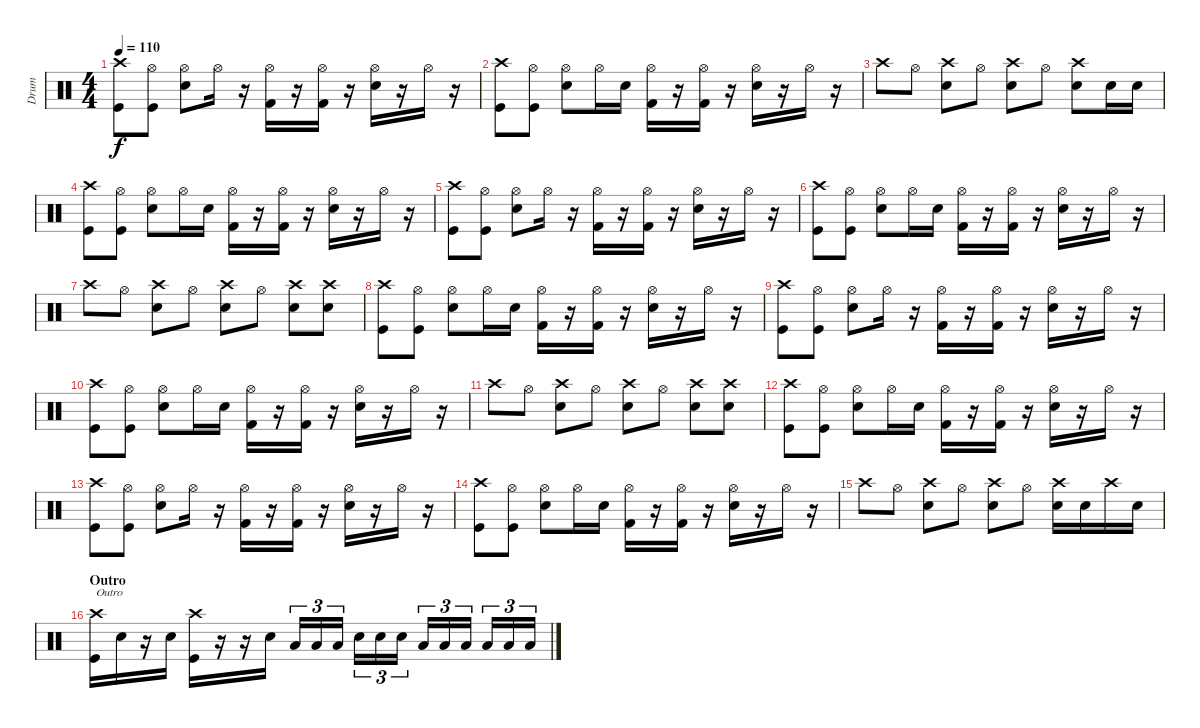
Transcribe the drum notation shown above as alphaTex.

\track ("Drum" "Drum") {instrument percussion}
\staff {score}
\articulation defaults
\ts (4 4)
\tempo 110
\clef neutral
\ks c
("Crash high (hit)" "Kick (hit)").8{dy f} ("Hi-Hat (open)" "Kick (hit)").8 ("Hi-Hat (open)" "Electric Snare (hit)").8 "Hi-Hat (open)".16 r.16 ("Hi-Hat (open)" "Kick (hit) 2").16 r.16 ("Hi-Hat (open)" "Kick (hit) 2").16 r.16 ("Hi-Hat (open)" "Electric Snare (hit)").16 r.16 "Hi-Hat (open)".16 r.16 |
("Crash high (hit)" "Kick (hit)").8 ("Hi-Hat (open)" "Kick (hit)").8 ("Hi-Hat (open)" "Electric Snare (hit)").8 "Hi-Hat (open)".16 "Electric Snare (hit)".16 ("Hi-Hat (open)" "Kick (hit) 2").16 r.16 ("Hi-Hat (open)" "Kick (hit) 2").16 r.16 ("Hi-Hat (open)" "Electric Snare (hit)").16 r.16 "Hi-Hat (open)".16 r.16 |
"Crash high (hit)".8 "Hi-Hat (open)".8 ("Crash high (hit)" "Electric Snare (hit)").8 "Hi-Hat (open)".8 ("Crash high (hit)" "Electric Snare (hit)").8 "Hi-Hat (open)".8 ("Crash high (hit)" "Electric Snare (hit)").8 "Electric Snare (hit)".16 "Electric Snare (hit)".16 |
("Crash high (hit)" "Kick (hit)").8 ("Hi-Hat (open)" "Kick (hit)").8 ("Hi-Hat (open)" "Electric Snare (hit)").8 "Hi-Hat (open)".16 "Electric Snare (hit)".16 ("Hi-Hat (open)" "Kick (hit) 2").16 r.16 ("Hi-Hat (open)" "Kick (hit) 2").16 r.16 ("Hi-Hat (open)" "Electric Snare (hit)").16 r.16 "Hi-Hat (open)".16 r.16 |
("Crash high (hit)" "Kick (hit)").8 ("Hi-Hat (open)" "Kick (hit)").8 ("Hi-Hat (open)" "Electric Snare (hit)").8 "Hi-Hat (open)".16 r.16 ("Hi-Hat (open)" "Kick (hit) 2").16 r.16 ("Hi-Hat (open)" "Kick (hit) 2").16 r.16 ("Hi-Hat (open)" "Electric Snare (hit)").16 r.16 "Hi-Hat (open)".16 r.16 |
("Crash high (hit)" "Kick (hit)").8 ("Hi-Hat (open)" "Kick (hit)").8 ("Hi-Hat (open)" "Electric Snare (hit)").8 "Hi-Hat (open)".16 "Electric Snare (hit)".16 ("Hi-Hat (open)" "Kick (hit) 2").16 r.16 ("Hi-Hat (open)" "Kick (hit) 2").16 r.16 ("Hi-Hat (open)" "Electric Snare (hit)").16 r.16 "Hi-Hat (open)".16 r.16 |
"Crash high (hit)".8 "Hi-Hat (open)".8 ("Crash high (hit)" "Electric Snare (hit)").8 "Hi-Hat (open)".8 ("Crash high (hit)" "Electric Snare (hit)").8 "Hi-Hat (open)".8 ("Crash high (hit)" "Electric Snare (hit)").8 ("Crash high (hit)" "Electric Snare (hit)").8 |
("Crash high (hit)" "Kick (hit)").8 ("Hi-Hat (open)" "Kick (hit)").8 ("Hi-Hat (open)" "Electric Snare (hit)").8 "Hi-Hat (open)".16 "Electric Snare (hit)".16 ("Hi-Hat (open)" "Kick (hit) 2").16 r.16 ("Hi-Hat (open)" "Kick (hit) 2").16 r.16 ("Hi-Hat (open)" "Electric Snare (hit)").16 r.16 "Hi-Hat (open)".16 r.16 |
("Crash high (hit)" "Kick (hit)").8 ("Hi-Hat (open)" "Kick (hit)").8 ("Hi-Hat (open)" "Electric Snare (hit)").8 "Hi-Hat (open)".16 r.16 ("Hi-Hat (open)" "Kick (hit) 2").16 r.16 ("Hi-Hat (open)" "Kick (hit) 2").16 r.16 ("Hi-Hat (open)" "Electric Snare (hit)").16 r.16 "Hi-Hat (open)".16 r.16 |
("Crash high (hit)" "Kick (hit)").8 ("Hi-Hat (open)" "Kick (hit)").8 ("Hi-Hat (open)" "Electric Snare (hit)").8 "Hi-Hat (open)".16 "Electric Snare (hit)".16 ("Hi-Hat (open)" "Kick (hit) 2").16 r.16 ("Hi-Hat (open)" "Kick (hit) 2").16 r.16 ("Hi-Hat (open)" "Electric Snare (hit)").16 r.16 "Hi-Hat (open)".16 r.16 |
"Crash high (hit)".8 "Hi-Hat (open)".8 ("Crash high (hit)" "Electric Snare (hit)").8 "Hi-Hat (open)".8 ("Crash high (hit)" "Electric Snare (hit)").8 "Hi-Hat (open)".8 ("Crash high (hit)" "Electric Snare (hit)").8 ("Crash high (hit)" "Electric Snare (hit)").8 |
("Crash high (hit)" "Kick (hit)").8 ("Hi-Hat (open)" "Kick (hit)").8 ("Hi-Hat (open)" "Electric Snare (hit)").8 "Hi-Hat (open)".16 "Electric Snare (hit)".16 ("Hi-Hat (open)" "Kick (hit) 2").16 r.16 ("Hi-Hat (open)" "Kick (hit) 2").16 r.16 ("Hi-Hat (open)" "Electric Snare (hit)").16 r.16 "Hi-Hat (open)".16 r.16 |
("Crash high (hit)" "Kick (hit)").8 ("Hi-Hat (open)" "Kick (hit)").8 ("Hi-Hat (open)" "Electric Snare (hit)").8 "Hi-Hat (open)".16 r.16 ("Hi-Hat (open)" "Kick (hit) 2").16 r.16 ("Hi-Hat (open)" "Kick (hit) 2").16 r.16 ("Hi-Hat (open)" "Electric Snare (hit)").16 r.16 "Hi-Hat (open)".16 r.16 |
("Crash high (hit)" "Kick (hit)").8 ("Hi-Hat (open)" "Kick (hit)").8 ("Hi-Hat (open)" "Electric Snare (hit)").8 "Hi-Hat (open)".16 "Electric Snare (hit)".16 ("Hi-Hat (open)" "Kick (hit) 2").16 r.16 ("Hi-Hat (open)" "Kick (hit) 2").16 r.16 ("Hi-Hat (open)" "Electric Snare (hit)").16 r.16 "Hi-Hat (open)".16 r.16 |
"Crash high (hit)".8 "Hi-Hat (open)".8 ("Crash high (hit)" "Electric Snare (hit)").8 "Hi-Hat (open)".8 ("Crash high (hit)" "Electric Snare (hit)").8 "Hi-Hat (open)".8 ("Crash high (hit)" "Electric Snare (hit)").16 "Electric Snare (hit)".16 "Crash high (hit)".16 "Electric Snare (hit)".16 |
\section ("" "Outro")
("Crash high (hit)" "Kick (hit)").16{txt "Outro"} "Electric Snare (hit)".16 r.16 "Electric Snare (hit)".16 ("Crash high (hit)" "Kick (hit)").16 r.16 r.16 "Electric Snare (hit)".16 "Low Tom (hit)".16{tu (3 2)} "Low Tom (hit)".16{tu (3 2)} "Low Tom (hit)".16{tu (3 2)} "Electric Snare (hit)".16{tu (3 2)} "Electric Snare (hit)".16{tu (3 2)} "Electric Snare (hit)".16{tu (3 2)} "Low Tom (hit)".16{tu (3 2)} "Low Tom (hit)".16{tu (3 2)} "Low Tom (hit)".16{tu (3 2)} "Low Tom (hit)".16{tu (3 2)} "Low Tom (hit)".16{tu (3 2)} "Low Tom (hit)".16{tu (3 2)}
